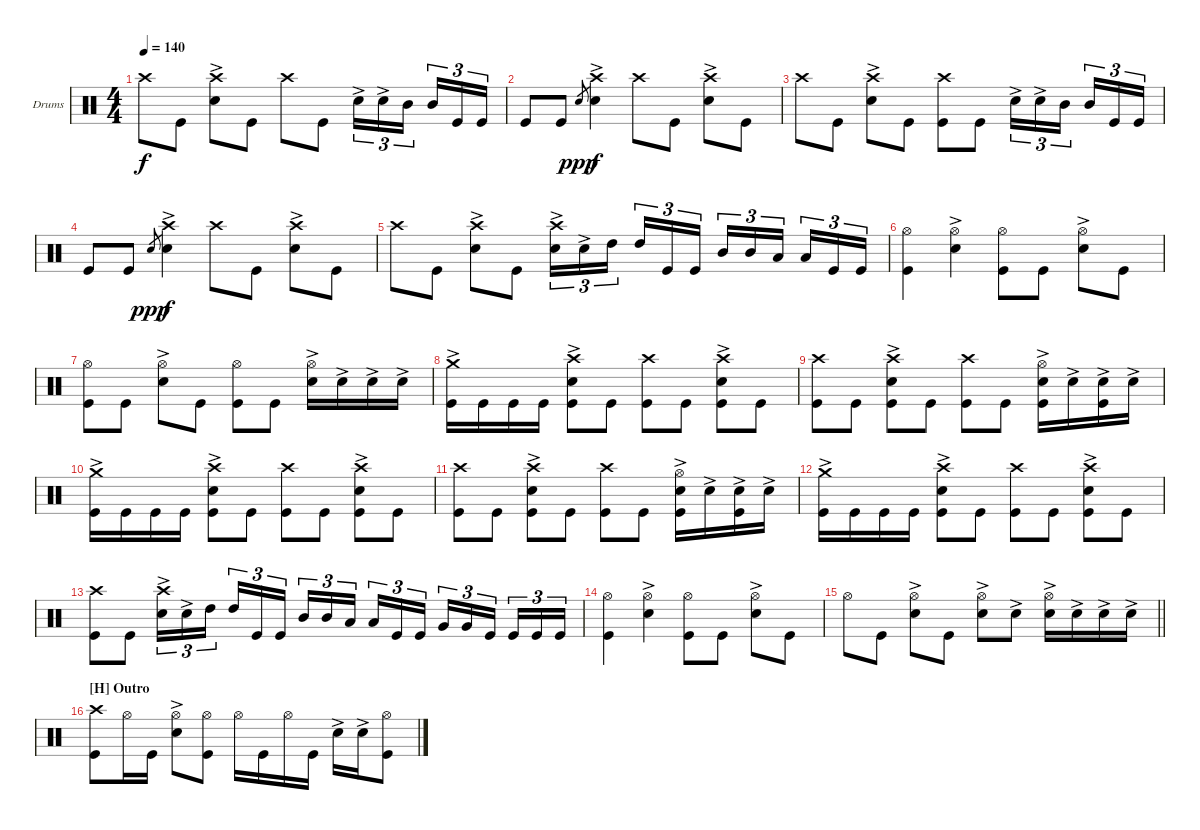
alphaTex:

\bracketExtendMode groupsimilarinstruments
\firstSystemTrackNameOrientation horizontal
\otherSystemsTrackNameOrientation horizontal
\track ("Drumkit" "Drums") {instrument percussion}
\staff {score}
\articulation defaults
\ts (4 4)
\tempo 140
\clef neutral
\ks c "Crash high (hit)".8{dy f} "Kick (hit)".8
("Crash high (hit)" "Snare (hit) 2"{ac}).8 "Kick (hit)".8 "Crash high (hit)".8 "Kick (hit)".8 "Snare (hit) 2"{ac}.16{tu (3 2)} "Snare (hit) 2"{ac}.16{tu (3 2)} "Mid Tom (hit)".16{tu (3 2)} "Mid Tom (hit)".16{tu (3 2)} "Kick (hit)".16{tu (3 2)} "Kick (hit)".16{tu (3 2)} |
"Kick (hit)".8 "Kick (hit)".8 "Snare (hit) 2".8{gr dy ppp} ("Crash high (hit)" "Snare (hit) 2"{ac}).4{dy f} "Crash high (hit)".8 "Kick (hit)".8 ("Crash high (hit)" "Snare (hit) 2"{ac}).8 "Kick (hit)".8 |
"Crash high (hit)".8 "Kick (hit)".8 ("Crash high (hit)" "Snare (hit) 2"{ac}).8 "Kick (hit)".8 ("Crash high (hit)" "Kick (hit)").8 "Kick (hit)".8 "Snare (hit) 2"{ac}.16{tu (3 2)} "Snare (hit) 2"{ac}.16{tu (3 2)} "Mid Tom (hit)".16{tu (3 2)} "Mid Tom (hit)".16{tu (3 2)} "Kick (hit)".16{tu (3 2)} "Kick (hit)".16{tu (3 2)} |
"Kick (hit)".8 "Kick (hit)".8 "Snare (hit) 2".8{gr dy ppp} ("Crash high (hit)" "Snare (hit) 2"{ac}).4{dy f} "Crash high (hit)".8 "Kick (hit)".8 ("Crash high (hit)" "Snare (hit) 2"{ac}).8 "Kick (hit)".8 |
"Crash high (hit)".8 "Kick (hit)".8 ("Crash high (hit)" "Snare (hit) 2"{ac}).8 "Kick (hit)".8 ("Crash high (hit)" "Snare (hit) 2"{ac}).16{tu (3 2)} "Snare (hit) 2"{ac}.16{tu (3 2)} "High Tom (hit)".16{tu (3 2)} "High Tom (hit)".16{tu (3 2)} "Kick (hit)".16{tu (3 2)} "Kick (hit)".16{tu (3 2)} "Mid Tom (hit)".16{tu (3 2)} "Mid Tom (hit)".16{tu (3 2)} "Low Tom (hit)".16{tu (3 2)} "Low Tom (hit)".16{tu (3 2)} "Kick (hit)".16{tu (3 2)} "Kick (hit)".16{tu (3 2)} |
("Hi-Hat (open)" "Kick (hit)").4 ("Hi-Hat (open)" "Snare (hit) 2"{ac}).4 ("Hi-Hat (open)" "Kick (hit)").8 "Kick (hit)".8 ("Hi-Hat (open)" "Snare (hit) 2"{ac}).8 "Kick (hit)".8 |
("Hi-Hat (open)" "Kick (hit)").8 "Kick (hit)".8 ("Hi-Hat (open)" "Snare (hit) 2"{ac}).8 "Kick (hit)".8 ("Hi-Hat (open)" "Kick (hit)").8 "Kick (hit)".8 ("Hi-Hat (open)" "Snare (hit) 2"{ac}).16 "Snare (hit) 2"{ac}.16 "Snare (hit) 2"{ac}.16 "Snare (hit) 2"{ac}.16 |
("Crash medium (hit)"{ac} "Kick (hit)").16 "Kick (hit)".16 "Kick (hit)".16 "Kick (hit)".16 ("Crash high (hit)" "Snare (hit) 2"{ac} "Kick (hit)").8 "Kick (hit)".8 ("Crash high (hit)" "Kick (hit)").8 "Kick (hit)".8 ("Crash high (hit)" "Snare (hit) 2"{ac} "Kick (hit)").8 "Kick (hit)".8 |
("Crash high (hit)" "Kick (hit)").8 "Kick (hit)".8 ("Crash high (hit)" "Snare (hit) 2"{ac} "Kick (hit)").8 "Kick (hit)".8 ("Crash high (hit)" "Kick (hit)").8 "Kick (hit)".8 ("Hi-Hat (open)" "Snare (hit) 2"{ac} "Kick (hit)").16 "Snare (hit) 2"{ac}.16 ("Snare (hit) 2"{ac} "Kick (hit)").16 "Snare (hit) 2"{ac}.16 |
("Crash medium (hit)"{ac} "Kick (hit)").16 "Kick (hit)".16 "Kick (hit)".16 "Kick (hit)".16 ("Crash high (hit)" "Snare (hit) 2"{ac} "Kick (hit)").8 "Kick (hit)".8 ("Crash high (hit)" "Kick (hit)").8 "Kick (hit)".8 ("Crash high (hit)" "Snare (hit) 2"{ac} "Kick (hit)").8 "Kick (hit)".8 |
("Crash high (hit)" "Kick (hit)").8 "Kick (hit)".8 ("Crash high (hit)" "Snare (hit) 2"{ac} "Kick (hit)").8 "Kick (hit)".8 ("Crash high (hit)" "Kick (hit)").8 "Kick (hit)".8 ("Hi-Hat (open)" "Snare (hit) 2"{ac} "Kick (hit)").16 "Snare (hit) 2"{ac}.16 ("Snare (hit) 2"{ac} "Kick (hit)").16 "Snare (hit) 2"{ac}.16 |
("Crash medium (hit)"{ac} "Kick (hit)").16 "Kick (hit)".16 "Kick (hit)".16 "Kick (hit)".16 ("Crash high (hit)" "Snare (hit) 2"{ac} "Kick (hit)").8 "Kick (hit)".8 ("Crash high (hit)" "Kick (hit)").8 "Kick (hit)".8 ("Crash high (hit)" "Snare (hit) 2"{ac} "Kick (hit)").8 "Kick (hit)".8 |
("Crash high (hit)" "Kick (hit)").8 "Kick (hit)".8 ("Crash high (hit)" "Snare (hit) 2"{ac}).16{tu (3 2)} "Snare (hit) 2"{ac}.16{tu (3 2)} "High Tom (hit)".16{tu (3 2)} "High Tom (hit)".16{tu (3 2)} "Kick (hit)".16{tu (3 2)} "Kick (hit)".16{tu (3 2)} "Mid Tom (hit)".16{tu (3 2)} "Mid Tom (hit)".16{tu (3 2)} "Low Tom (hit)".16{tu (3 2)} "Low Tom (hit)".16{tu (3 2)} "Kick (hit)".16{tu (3 2)} "Kick (hit)".16{tu (3 2)} "Very Low Tom (hit)".16{tu (3 2)} "Very Low Tom (hit)".16{tu (3 2)} "Kick (hit)".16{tu (3 2)} "Kick (hit)".16{tu (3 2)} "Kick (hit)".16{tu (3 2)} "Kick (hit)".16{tu (3 2)} |
("Hi-Hat (open)" "Kick (hit)").4 ("Hi-Hat (open)" "Snare (hit) 2"{ac}).4 ("Hi-Hat (open)" "Kick (hit)").8 "Kick (hit)".8 ("Hi-Hat (open)" "Snare (hit) 2"{ac}).8 "Kick (hit)".8 |
\barLineRight lightlight "Hi-Hat (open)".8 "Kick (hit)".8
("Hi-Hat (open)" "Snare (hit) 2"{ac}).8 "Kick (hit)".8 ("Hi-Hat (open)" "Snare (hit) 2"{ac}).8 "Snare (hit) 2"{ac}.8 ("Hi-Hat (open)" "Snare (hit) 2"{ac}).16 "Snare (hit) 2"{ac}.16 "Snare (hit) 2"{ac}.16 "Snare (hit) 2"{ac}.16 |
\section ("H" "Outro")
("Crash high (hit)" "Kick (hit)").8 "Hi-Hat (open)".16 "Kick (hit)".16 ("Hi-Hat (open)" "Snare (hit) 2"{ac}).8 ("Hi-Hat (open)" "Kick (hit)").8 "Hi-Hat (open)".16 "Kick (hit)".16 "Hi-Hat (open)".16 "Kick (hit)".16 "Snare (hit) 2"{ac}.16 "Snare (hit) 2"{ac}.16 ("Hi-Hat (open)" "Kick (hit)").8
